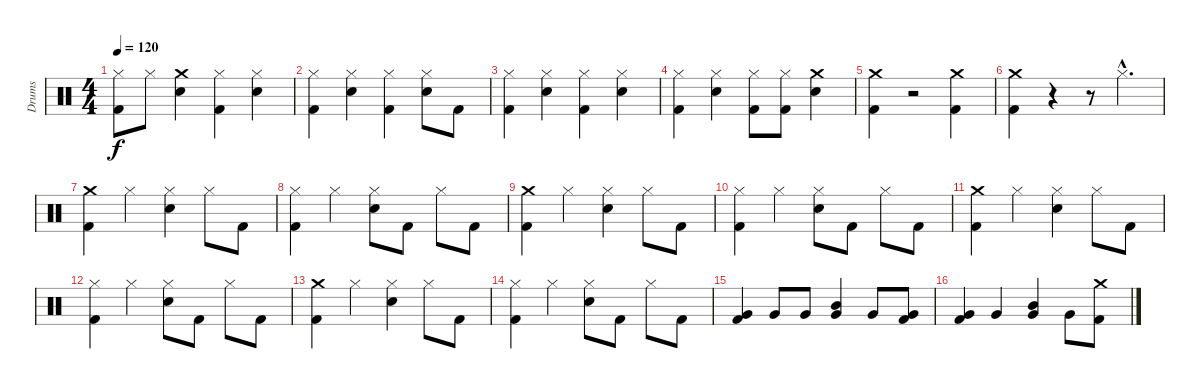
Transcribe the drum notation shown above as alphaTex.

\track ("Drums" "Drums") {instrument percussion}
\staff {score}
\articulation defaults
\ts (4 4)
\tempo 120
\clef neutral
\ks c
("Kick (hit) 2" "Hi-Hat (closed)").8{dy f} "Hi-Hat (closed)".8 ("Crash medium (hit)" "Snare (hit) 2").4 ("Hi-Hat (closed)" "Kick (hit) 2").4 ("Hi-Hat (closed)" "Snare (hit) 2").4 |
("Hi-Hat (closed)" "Kick (hit) 2").4 ("Snare (hit) 2" "Hi-Hat (closed)").4 ("Hi-Hat (closed)" "Kick (hit) 2").4 ("Hi-Hat (closed)" "Snare (hit) 2").8 "Kick (hit) 2".8 |
("Kick (hit) 2" "Hi-Hat (closed)").4 ("Hi-Hat (closed)" "Snare (hit) 2").4 ("Hi-Hat (closed)" "Kick (hit) 2").4 ("Hi-Hat (closed)" "Snare (hit) 2").4 |
("Hi-Hat (closed)" "Kick (hit) 2").4 ("Hi-Hat (closed)" "Snare (hit) 2").4 ("Kick (hit) 2" "Hi-Hat (closed)").8 ("Kick (hit) 2" "Hi-Hat (closed)").8 ("Crash medium (hit)" "Snare (hit) 2").4 |
("Crash medium (hit)" "Kick (hit) 2").4 r.2 ("Kick (hit) 2" "Crash medium (hit)").4 |
("Crash medium (hit)" "Kick (hit) 2").4 r.4 r.8 "Hi-Hat (closed)"{hac}.4{d} |
("Kick (hit) 2" "Crash medium (hit)").4 "Hi-Hat (closed)".4 ("Snare (hit) 2" "Hi-Hat (closed)").4 "Hi-Hat (closed)".8 "Kick (hit) 2".8 |
("Hi-Hat (closed)" "Kick (hit) 2").4 "Hi-Hat (closed)".4 ("Snare (hit) 2" "Hi-Hat (closed)").8 "Kick (hit) 2".8 "Hi-Hat (closed)".8 "Kick (hit) 2".8 |
("Kick (hit) 2" "Crash medium (hit)").4 "Hi-Hat (closed)".4 ("Snare (hit) 2" "Hi-Hat (closed)").4 "Hi-Hat (closed)".8 "Kick (hit) 2".8 |
("Hi-Hat (closed)" "Kick (hit) 2").4 "Hi-Hat (closed)".4 ("Snare (hit) 2" "Hi-Hat (closed)").8 "Kick (hit) 2".8 "Hi-Hat (closed)".8 "Kick (hit) 2".8 |
("Kick (hit) 2" "Crash medium (hit)").4 "Hi-Hat (closed)".4 ("Snare (hit) 2" "Hi-Hat (closed)").4 "Hi-Hat (closed)".8 "Kick (hit) 2".8 |
("Hi-Hat (closed)" "Kick (hit) 2").4 "Hi-Hat (closed)".4 ("Snare (hit) 2" "Hi-Hat (closed)").8 "Kick (hit) 2".8 "Hi-Hat (closed)".8 "Kick (hit) 2".8 |
("Kick (hit) 2" "Crash medium (hit)").4 "Hi-Hat (closed)".4 ("Snare (hit) 2" "Hi-Hat (closed)").4 "Hi-Hat (closed)".8 "Kick (hit) 2".8 |
("Hi-Hat (closed)" "Kick (hit) 2").4 "Hi-Hat (closed)".4 ("Snare (hit) 2" "Hi-Hat (closed)").8 "Kick (hit) 2".8 "Hi-Hat (closed)".8 "Kick (hit) 2".8 |
("Kick (hit) 2" "Very Low Tom (hit)").4 "Very Low Tom (hit)".8 "Very Low Tom (hit)".8 ("Mid Tom (hit)" "Very Low Tom (hit)").4 "Very Low Tom (hit)".8 ("Kick (hit) 2" "Very Low Tom (hit)").8 |
("Kick (hit) 2" "Very Low Tom (hit)").4 "Very Low Tom (hit)".4 ("Very Low Tom (hit)" "Mid Tom (hit)").4 "Very Low Tom (hit)".8 ("Kick (hit) 2" "Crash medium (hit)").8
